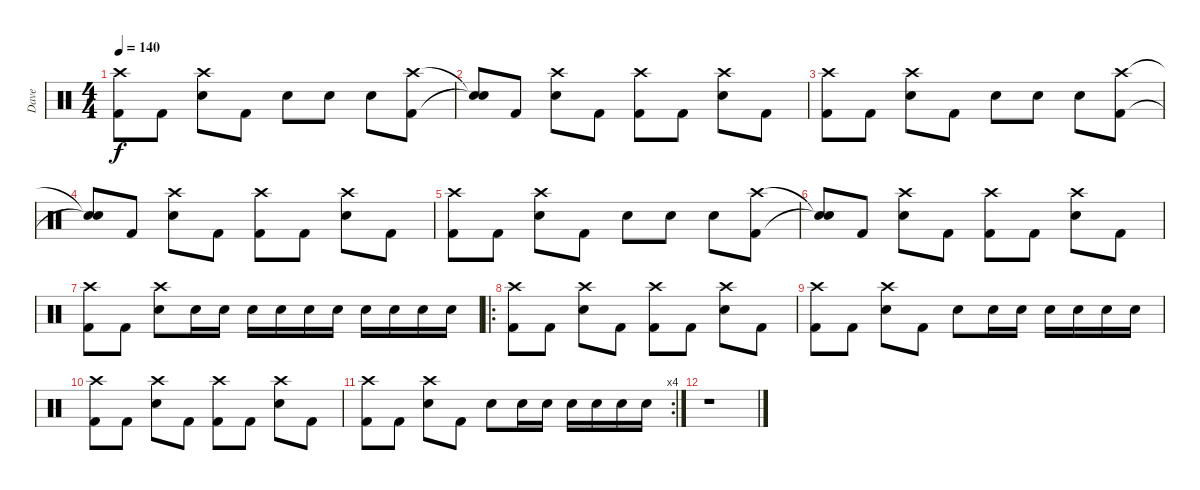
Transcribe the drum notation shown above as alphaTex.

\track ("Dave" "Dave") {instrument percussion}
\staff {score}
\articulation defaults
\ts (4 4)
\tempo 140
\clef neutral
\ks c
("Crash high (hit)" "Kick (hit) 2").8{dy f} "Kick (hit) 2".8 ("Crash high (hit)" "Snare (hit) 2").8 "Kick (hit) 2".8 "Snare (hit) 2".8 "Snare (hit) 2".8 "Snare (hit) 2".8 ("Crash high (hit)" "Kick (hit) 2").8 |
("Snare (hit)"{t} "Snare (hit)"{t}).8 "Kick (hit) 2".8 ("Crash high (hit)" "Snare (hit) 2").8 "Kick (hit) 2".8 ("Crash high (hit)" "Kick (hit) 2").8 "Kick (hit) 2".8 ("Crash high (hit)" "Snare (hit) 2").8 "Kick (hit) 2".8 |
("Crash high (hit)" "Kick (hit) 2").8 "Kick (hit) 2".8 ("Crash high (hit)" "Snare (hit) 2").8 "Kick (hit) 2".8 "Snare (hit) 2".8 "Snare (hit) 2".8 "Snare (hit) 2".8 ("Crash high (hit)" "Kick (hit) 2").8 |
("Snare (hit)"{t} "Snare (hit)"{t}).8 "Kick (hit) 2".8 ("Crash high (hit)" "Snare (hit) 2").8 "Kick (hit) 2".8 ("Crash high (hit)" "Kick (hit) 2").8 "Kick (hit) 2".8 ("Crash high (hit)" "Snare (hit) 2").8 "Kick (hit) 2".8 |
("Crash high (hit)" "Kick (hit) 2").8 "Kick (hit) 2".8 ("Crash high (hit)" "Snare (hit) 2").8 "Kick (hit) 2".8 "Snare (hit) 2".8 "Snare (hit) 2".8 "Snare (hit) 2".8 ("Crash high (hit)" "Kick (hit) 2").8 |
("Snare (hit)"{t} "Snare (hit)"{t}).8 "Kick (hit) 2".8 ("Crash high (hit)" "Snare (hit) 2").8 "Kick (hit) 2".8 ("Crash high (hit)" "Kick (hit) 2").8 "Kick (hit) 2".8 ("Crash high (hit)" "Snare (hit) 2").8 "Kick (hit) 2".8 |
("Crash high (hit)" "Kick (hit) 2").8 "Kick (hit) 2".8 ("Crash high (hit)" "Snare (hit) 2").8 "Snare (hit) 2".16 "Snare (hit) 2".16 "Snare (hit) 2".16 "Snare (hit) 2".16 "Snare (hit) 2".16 "Snare (hit) 2".16 "Snare (hit) 2".16 "Snare (hit) 2".16 "Snare (hit) 2".16 "Snare (hit) 2".16 |
\ro
("Crash high (hit)" "Kick (hit) 2").8 "Kick (hit) 2".8 ("Crash high (hit)" "Snare (hit) 2").8 "Kick (hit) 2".8 ("Crash high (hit)" "Kick (hit) 2").8 "Kick (hit) 2".8 ("Crash high (hit)" "Snare (hit) 2").8 "Kick (hit) 2".8 |
("Crash high (hit)" "Kick (hit) 2").8 "Kick (hit) 2".8 ("Crash high (hit)" "Snare (hit) 2").8 "Kick (hit) 2".8 "Snare (hit) 2".8 "Snare (hit) 2".16 "Snare (hit) 2".16 "Snare (hit) 2".16 "Snare (hit) 2".16 "Snare (hit) 2".16 "Snare (hit) 2".16 |
("Crash high (hit)" "Kick (hit) 2").8 "Kick (hit) 2".8 ("Crash high (hit)" "Snare (hit) 2").8 "Kick (hit) 2".8 ("Crash high (hit)" "Kick (hit) 2").8 "Kick (hit) 2".8 ("Crash high (hit)" "Snare (hit) 2").8 "Kick (hit) 2".8 |
\rc 4
("Crash high (hit)" "Kick (hit) 2").8 "Kick (hit) 2".8 ("Crash high (hit)" "Snare (hit) 2").8 "Kick (hit) 2".8 "Snare (hit) 2".8 "Snare (hit) 2".16 "Snare (hit) 2".16 "Snare (hit) 2".16 "Snare (hit) 2".16 "Snare (hit) 2".16 "Snare (hit) 2".16 |
r.1
